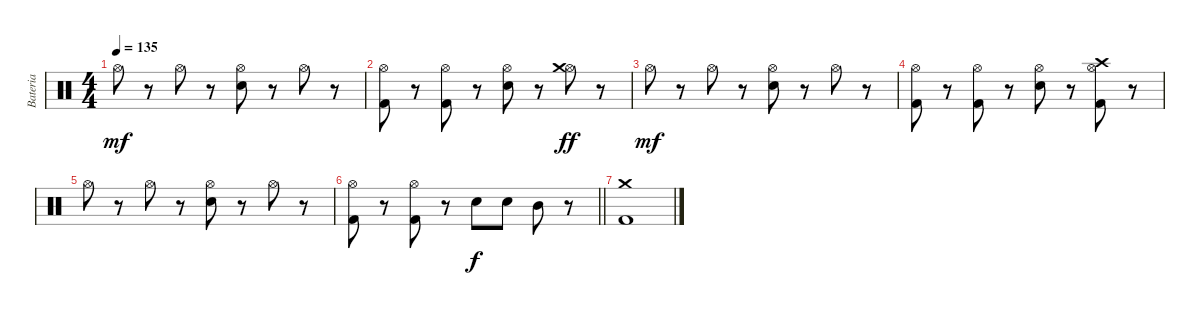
\track ("Bateria" "Bateria") {instrument percussion}
\staff {score}
\articulation defaults
\ts (4 4)
\tempo 135
\clef neutral
\ks c "Hi-Hat (open)".8{dy mf}
r.8 "Hi-Hat (open)".8 r.8 ("Hi-Hat (open)" "Electric Snare (hit)").8 r.8 "Hi-Hat (open)".8 r.8 |
("Hi-Hat (open)" "Kick (hit) 2").8 r.8 ("Hi-Hat (open)" "Kick (hit) 2").8 r.8 ("Hi-Hat (open)" "Electric Snare (hit)").8 r.8 ("Hi-Hat (open)" "Crash medium (hit)").8{dy ff} r.8 |
"Hi-Hat (open)".8{dy mf} r.8 "Hi-Hat (open)".8 r.8 ("Hi-Hat (open)" "Electric Snare (hit)").8 r.8 "Hi-Hat (open)".8 r.8 |
("Hi-Hat (open)" "Kick (hit) 2").8 r.8 ("Hi-Hat (open)" "Kick (hit) 2").8 r.8 ("Hi-Hat (open)" "Electric Snare (hit)").8 r.8 ("Hi-Hat (open)" "Crash high (hit)" "Kick (hit) 2").8 r.8 |
"Hi-Hat (open)".8 r.8 "Hi-Hat (open)".8 r.8 ("Hi-Hat (open)" "Electric Snare (hit)").8 r.8 "Hi-Hat (open)".8 r.8 |
\barLineRight lightlight
("Hi-Hat (open)" "Kick (hit) 2").8 r.8 ("Hi-Hat (open)" "Kick (hit) 2").8 r.8 "Electric Snare (hit)".8{dy f} "Electric Snare (hit)".8 "Mid Tom (hit)".8 r.8 |
("Kick (hit) 2" "Crash medium (hit)").1
